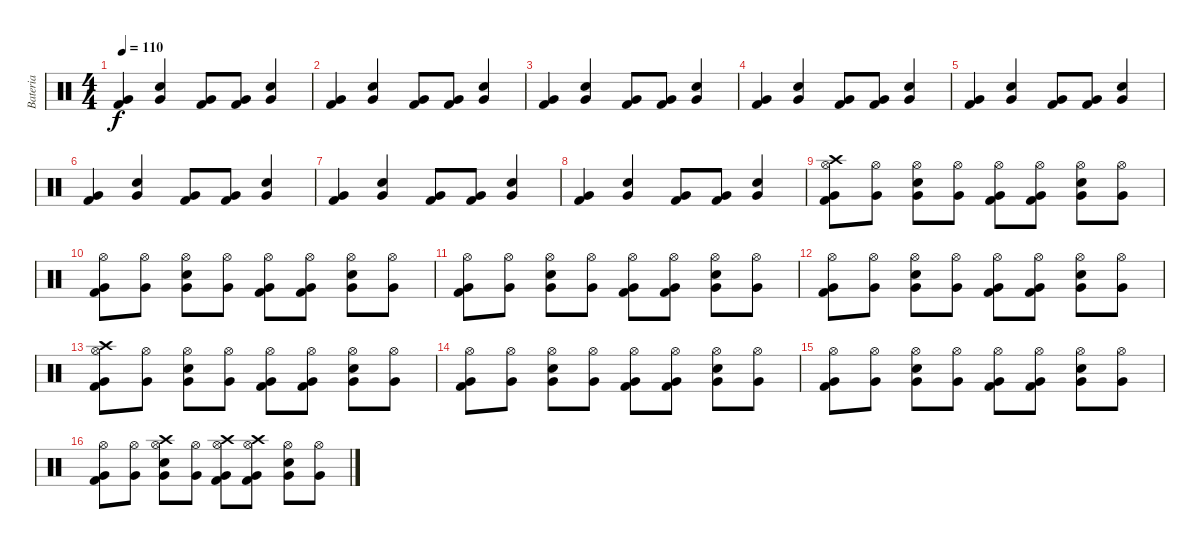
\track ("Bateria" "Bateria") {instrument percussion}
\staff {score}
\articulation defaults
\ts (4 4)
\tempo 110
\clef neutral
\ks c
("Very Low Tom (hit)" "Kick (hit) 2").4{dy f} ("Electric Snare (hit)" "Very Low Tom (hit)").4 ("Very Low Tom (hit)" "Kick (hit) 2").8 ("Very Low Tom (hit)" "Kick (hit) 2").8 ("Electric Snare (hit)" "Very Low Tom (hit)").4 |
("Very Low Tom (hit)" "Kick (hit) 2").4 ("Electric Snare (hit)" "Very Low Tom (hit)").4 ("Very Low Tom (hit)" "Kick (hit) 2").8 ("Very Low Tom (hit)" "Kick (hit) 2").8 ("Electric Snare (hit)" "Very Low Tom (hit)").4 |
("Very Low Tom (hit)" "Kick (hit) 2").4 ("Electric Snare (hit)" "Very Low Tom (hit)").4 ("Very Low Tom (hit)" "Kick (hit) 2").8 ("Very Low Tom (hit)" "Kick (hit) 2").8 ("Electric Snare (hit)" "Very Low Tom (hit)").4 |
("Very Low Tom (hit)" "Kick (hit) 2").4 ("Electric Snare (hit)" "Very Low Tom (hit)").4 ("Very Low Tom (hit)" "Kick (hit) 2").8 ("Very Low Tom (hit)" "Kick (hit) 2").8 ("Electric Snare (hit)" "Very Low Tom (hit)").4 |
("Very Low Tom (hit)" "Kick (hit) 2").4 ("Electric Snare (hit)" "Very Low Tom (hit)").4 ("Very Low Tom (hit)" "Kick (hit) 2").8 ("Very Low Tom (hit)" "Kick (hit) 2").8 ("Electric Snare (hit)" "Very Low Tom (hit)").4 |
("Very Low Tom (hit)" "Kick (hit) 2").4 ("Electric Snare (hit)" "Very Low Tom (hit)").4 ("Very Low Tom (hit)" "Kick (hit) 2").8 ("Very Low Tom (hit)" "Kick (hit) 2").8 ("Electric Snare (hit)" "Very Low Tom (hit)").4 |
("Very Low Tom (hit)" "Kick (hit) 2").4 ("Electric Snare (hit)" "Very Low Tom (hit)").4 ("Very Low Tom (hit)" "Kick (hit) 2").8 ("Very Low Tom (hit)" "Kick (hit) 2").8 ("Electric Snare (hit)" "Very Low Tom (hit)").4 |
("Very Low Tom (hit)" "Kick (hit) 2").4 ("Electric Snare (hit)" "Very Low Tom (hit)").4 ("Very Low Tom (hit)" "Kick (hit) 2").8 ("Very Low Tom (hit)" "Kick (hit) 2").8 ("Electric Snare (hit)" "Very Low Tom (hit)").4 |
("Crash high (hit)" "Hi-Hat (open)" "Very Low Tom (hit)" "Kick (hit) 2").8 ("Hi-Hat (open)" "Very Low Tom (hit)").8 ("Electric Snare (hit)" "Hi-Hat (open)" "Very Low Tom (hit)").8 ("Hi-Hat (open)" "Very Low Tom (hit)").8 ("Hi-Hat (open)" "Very Low Tom (hit)" "Kick (hit) 2").8 ("Hi-Hat (open)" "Very Low Tom (hit)" "Kick (hit) 2").8 ("Electric Snare (hit)" "Hi-Hat (open)" "Very Low Tom (hit)").8 ("Hi-Hat (open)" "Very Low Tom (hit)").8 |
("Hi-Hat (open)" "Very Low Tom (hit)" "Kick (hit) 2").8 ("Hi-Hat (open)" "Very Low Tom (hit)").8 ("Electric Snare (hit)" "Hi-Hat (open)" "Very Low Tom (hit)").8 ("Hi-Hat (open)" "Very Low Tom (hit)").8 ("Hi-Hat (open)" "Very Low Tom (hit)" "Kick (hit) 2").8 ("Hi-Hat (open)" "Very Low Tom (hit)" "Kick (hit) 2").8 ("Electric Snare (hit)" "Hi-Hat (open)" "Very Low Tom (hit)").8 ("Hi-Hat (open)" "Very Low Tom (hit)").8 |
("Hi-Hat (open)" "Very Low Tom (hit)" "Kick (hit) 2").8 ("Hi-Hat (open)" "Very Low Tom (hit)").8 ("Electric Snare (hit)" "Hi-Hat (open)" "Very Low Tom (hit)").8 ("Hi-Hat (open)" "Very Low Tom (hit)").8 ("Hi-Hat (open)" "Very Low Tom (hit)" "Kick (hit) 2").8 ("Hi-Hat (open)" "Very Low Tom (hit)" "Kick (hit) 2").8 ("Electric Snare (hit)" "Hi-Hat (open)" "Very Low Tom (hit)").8 ("Hi-Hat (open)" "Very Low Tom (hit)").8 |
("Hi-Hat (open)" "Very Low Tom (hit)" "Kick (hit) 2").8 ("Hi-Hat (open)" "Very Low Tom (hit)").8 ("Electric Snare (hit)" "Hi-Hat (open)" "Very Low Tom (hit)").8 ("Hi-Hat (open)" "Very Low Tom (hit)").8 ("Hi-Hat (open)" "Very Low Tom (hit)" "Kick (hit) 2").8 ("Hi-Hat (open)" "Very Low Tom (hit)" "Kick (hit) 2").8 ("Electric Snare (hit)" "Hi-Hat (open)" "Very Low Tom (hit)").8 ("Hi-Hat (open)" "Very Low Tom (hit)").8 |
("Crash high (hit)" "Hi-Hat (open)" "Very Low Tom (hit)" "Kick (hit) 2").8 ("Hi-Hat (open)" "Very Low Tom (hit)").8 ("Electric Snare (hit)" "Hi-Hat (open)" "Very Low Tom (hit)").8 ("Hi-Hat (open)" "Very Low Tom (hit)").8 ("Hi-Hat (open)" "Very Low Tom (hit)" "Kick (hit) 2").8 ("Hi-Hat (open)" "Very Low Tom (hit)" "Kick (hit) 2").8 ("Electric Snare (hit)" "Hi-Hat (open)" "Very Low Tom (hit)").8 ("Hi-Hat (open)" "Very Low Tom (hit)").8 |
("Hi-Hat (open)" "Very Low Tom (hit)" "Kick (hit) 2").8 ("Hi-Hat (open)" "Very Low Tom (hit)").8 ("Electric Snare (hit)" "Hi-Hat (open)" "Very Low Tom (hit)").8 ("Hi-Hat (open)" "Very Low Tom (hit)").8 ("Hi-Hat (open)" "Very Low Tom (hit)" "Kick (hit) 2").8 ("Hi-Hat (open)" "Very Low Tom (hit)" "Kick (hit) 2").8 ("Electric Snare (hit)" "Hi-Hat (open)" "Very Low Tom (hit)").8 ("Hi-Hat (open)" "Very Low Tom (hit)").8 |
("Hi-Hat (open)" "Very Low Tom (hit)" "Kick (hit) 2").8 ("Hi-Hat (open)" "Very Low Tom (hit)").8 ("Electric Snare (hit)" "Hi-Hat (open)" "Very Low Tom (hit)").8 ("Hi-Hat (open)" "Very Low Tom (hit)").8 ("Hi-Hat (open)" "Very Low Tom (hit)" "Kick (hit) 2").8 ("Hi-Hat (open)" "Very Low Tom (hit)" "Kick (hit) 2").8 ("Electric Snare (hit)" "Hi-Hat (open)" "Very Low Tom (hit)").8 ("Hi-Hat (open)" "Very Low Tom (hit)").8 |
("Hi-Hat (open)" "Very Low Tom (hit)" "Kick (hit) 2").8 ("Hi-Hat (open)" "Very Low Tom (hit)").8 ("Crash high (hit)" "Electric Snare (hit)" "Hi-Hat (open)" "Very Low Tom (hit)").8 ("Hi-Hat (open)" "Very Low Tom (hit)").8 ("Crash high (hit)" "Hi-Hat (open)" "Very Low Tom (hit)" "Kick (hit) 2").8 ("Crash high (hit)" "Hi-Hat (open)" "Very Low Tom (hit)" "Kick (hit) 2").8 ("Electric Snare (hit)" "Hi-Hat (open)" "Very Low Tom (hit)").8 ("Hi-Hat (open)" "Very Low Tom (hit)").8
